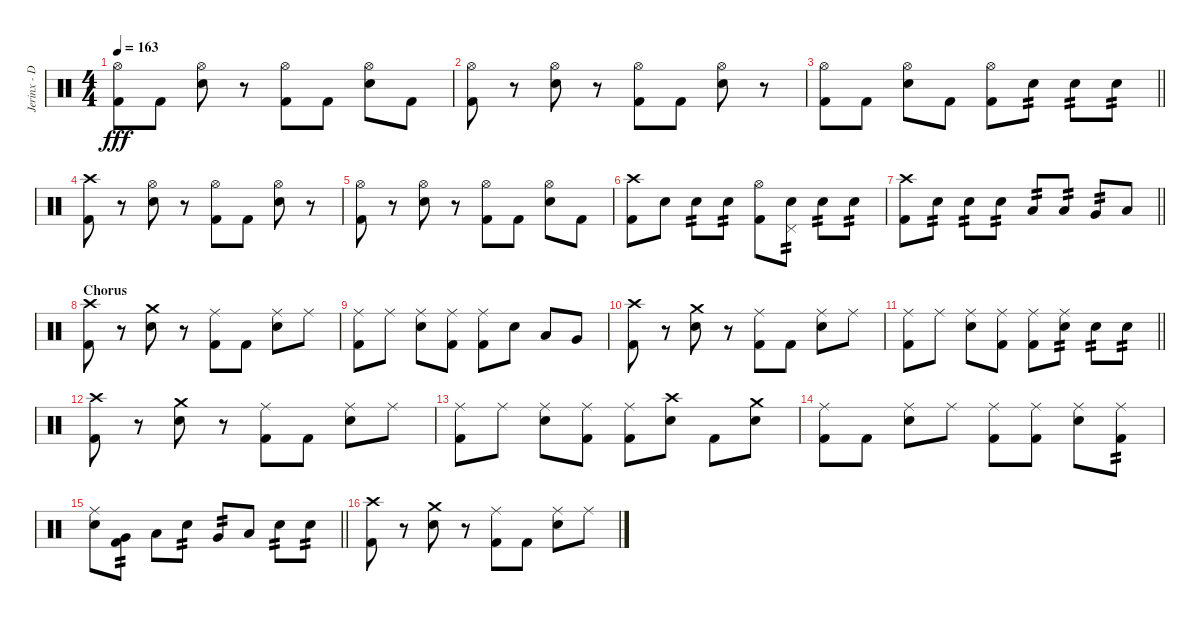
\track ("Jerinx - Drum" "Jerinx - D") {instrument percussion}
\staff {score}
\articulation defaults
\ts (4 4)
\tempo 163
\clef neutral
\ks c
("Hi-Hat (open)" "Kick (hit) 2").8{dy fff} "Kick (hit) 2".8 ("Hi-Hat (open)" "Snare (hit) 2").8 r.8 ("Hi-Hat (open)" "Kick (hit) 2").8 "Kick (hit) 2".8 ("Hi-Hat (open)" "Snare (hit) 2").8 "Kick (hit) 2".8 |
("Hi-Hat (open)" "Kick (hit) 2").8 r.8 ("Hi-Hat (open)" "Snare (hit) 2").8 r.8 ("Hi-Hat (open)" "Kick (hit) 2").8 "Kick (hit) 2".8 ("Hi-Hat (open)" "Snare (hit) 2").8 r.8 |
\barLineRight lightlight
("Hi-Hat (open)" "Kick (hit) 2").8 "Kick (hit) 2".8 ("Hi-Hat (open)" "Snare (hit) 2").8 "Kick (hit) 2".8 ("Hi-Hat (open)" "Kick (hit) 2").8 "Snare (hit) 2".8{tp 2} "Snare (hit) 2".8{tp 2} "Snare (hit) 2".8{tp 2} |
("Kick (hit) 2" "Crash high (hit)").8 r.8 ("Hi-Hat (open)" "Snare (hit) 2").8 r.8 ("Hi-Hat (open)" "Kick (hit) 2").8 "Kick (hit) 2".8 ("Hi-Hat (open)" "Snare (hit) 2").8 r.8 |
("Hi-Hat (open)" "Kick (hit) 2").8 r.8 ("Hi-Hat (open)" "Snare (hit) 2").8 r.8 ("Hi-Hat (open)" "Kick (hit) 2").8 "Kick (hit) 2".8 ("Hi-Hat (open)" "Snare (hit) 2").8 "Kick (hit) 2".8 |
("Kick (hit) 2" "Crash high (hit)").8 "Snare (hit) 2".8 "Snare (hit) 2".8{tp 2} "Snare (hit) 2".8{tp 2} ("Hi-Hat (open)" "Kick (hit) 2").8 ("Pedal Hi-Hat (hit)" "Snare (hit) 2").8{tp 2} "Snare (hit) 2".8{tp 2} "Snare (hit) 2".8{tp 2} |
\barLineRight lightlight
("Kick (hit) 2" "Crash high (hit)").8 "Snare (hit) 2".8{tp 2} "Snare (hit) 2".8{tp 2} "Snare (hit) 2".8{tp 2} "Low Tom (hit)".8{tp 2} "Low Tom (hit)".8{tp 2} "Very Low Tom (hit)".8{tp 2} "Low Floor Tom (hit)".8 |
\section ("" "Chorus")
("Kick (hit) 2" "Crash high (hit)").8 r.8 ("Snare (hit) 2" "Crash medium (hit)").8 r.8 ("Kick (hit) 2" "Ride (middle)").8 "Kick (hit) 2".8 ("Snare (hit) 2" "Ride (middle)").8 "Ride (middle)".8 |
("Kick (hit) 2" "Ride (middle)").8 "Ride (middle)".8 ("Snare (hit) 2" "Ride (middle)").8 ("Kick (hit) 2" "Ride (middle)").8 ("Kick (hit) 2" "Ride (middle)").8 "Snare (hit) 2".8 "Low Tom (hit)".8 "Very Low Tom (hit)".8 |
("Kick (hit) 2" "Crash high (hit)").8 r.8 ("Snare (hit) 2" "Crash medium (hit)").8 r.8 ("Kick (hit) 2" "Ride (middle)").8 "Kick (hit) 2".8 ("Snare (hit) 2" "Ride (middle)").8 "Ride (middle)".8 |
\barLineRight lightlight
("Kick (hit) 2" "Ride (middle)").8 "Ride (middle)".8 ("Snare (hit) 2" "Ride (middle)").8 ("Kick (hit) 2" "Ride (middle)").8 ("Kick (hit) 2" "Ride (middle)").8 ("Snare (hit) 2" "Ride (middle)").8{tp 2} "Snare (hit) 2".8{tp 2} "Snare (hit) 2".8{tp 2} |
("Kick (hit) 2" "Crash high (hit)").8 r.8 ("Snare (hit) 2" "Crash medium (hit)").8 r.8 ("Kick (hit) 2" "Ride (middle)").8 "Kick (hit) 2".8 ("Snare (hit) 2" "Ride (middle)").8 "Ride (middle)".8 |
("Kick (hit) 2" "Ride (middle)").8 "Ride (middle)".8 ("Snare (hit) 2" "Ride (middle)").8 ("Kick (hit) 2" "Ride (middle)").8 ("Kick (hit) 2" "Ride (middle)").8 ("Snare (hit) 2" "Crash high (hit)").8 "Kick (hit) 2".8 ("Snare (hit) 2" "Crash medium (hit)").8 |
("Kick (hit) 2" "Ride (middle)").8 "Kick (hit) 2".8 ("Snare (hit) 2" "Ride (middle)").8 "Ride (middle)".8 ("Kick (hit) 2" "Ride (middle)").8 ("Kick (hit) 2" "Ride (middle)").8 ("Snare (hit) 2" "Ride (middle)").8 ("Kick (hit) 2" "Ride (middle)").8{tp 2} |
\barLineRight lightlight
("Snare (hit) 2" "Ride (middle)").8 ("Kick (hit) 2" "Very Low Tom (hit)").8{tp 2} "Low Floor Tom (hit)".8 "Snare (hit) 2".8{tp 2} "Very Low Tom (hit)".8{tp 2} "Low Floor Tom (hit)".8 "Snare (hit) 2".8{tp 2} "Snare (hit) 2".8{tp 2} |
("Kick (hit) 2" "Crash high (hit)").8 r.8 ("Snare (hit) 2" "Crash medium (hit)").8 r.8 ("Kick (hit) 2" "Ride (middle)").8 "Kick (hit) 2".8 ("Snare (hit) 2" "Ride (middle)").8 "Ride (middle)".8
